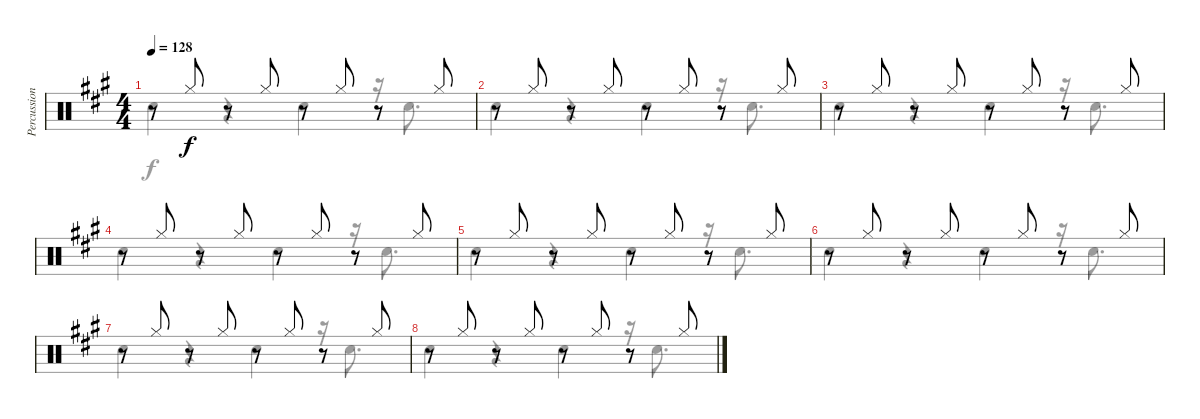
\track ("Percussion" "Percussion") {instrument percussion}
\staff {score}
\articulation defaults
\voice
\ts (4 4)
\tempo 128
\clef neutral
\ks a
r.8{dy f} "Hi-Hat (closed)".8 r.8 "Hi-Hat (closed)".8 r.8 "Hi-Hat (closed)".8 r.8 "Hi-Hat (closed)".8 |
r.8 "Hi-Hat (closed)".8 r.8 "Hi-Hat (closed)".8 r.8 "Hi-Hat (closed)".8 r.8 "Hi-Hat (closed)".8 |
r.8 "Hi-Hat (closed)".8 r.8 "Hi-Hat (closed)".8 r.8 "Hi-Hat (closed)".8 r.8 "Hi-Hat (closed)".8 |
r.8 "Hi-Hat (closed)".8 r.8 "Hi-Hat (closed)".8 r.8 "Hi-Hat (closed)".8 r.8 "Hi-Hat (closed)".8 |
r.8 "Hi-Hat (closed)".8 r.8 "Hi-Hat (closed)".8 r.8 "Hi-Hat (closed)".8 r.8 "Hi-Hat (closed)".8 |
r.8 "Hi-Hat (closed)".8 r.8 "Hi-Hat (closed)".8 r.8 "Hi-Hat (closed)".8 r.8 "Hi-Hat (closed)".8 |
r.8 "Hi-Hat (closed)".8 r.8 "Hi-Hat (closed)".8 r.8 "Hi-Hat (closed)".8 r.8 "Hi-Hat (closed)".8 |
r.8 "Hi-Hat (closed)".8 r.8 "Hi-Hat (closed)".8 r.8 "Hi-Hat (closed)".8 r.8 "Hi-Hat (closed)".8
\voice
\clef neutral
\ottava regular
\simile none
\ks a "Snare (hit) 2".4{dy f}
r.4 "Snare (hit) 2".4 r.16 "Snare (hit) 2".8{d} |
"Snare (hit) 2".4 r.4 "Snare (hit) 2".4 r.16 "Snare (hit) 2".8{d} |
"Snare (hit) 2".4 r.4 "Snare (hit) 2".4 r.16 "Snare (hit) 2".8{d} |
"Snare (hit) 2".4 r.4 "Snare (hit) 2".4 r.16 "Snare (hit) 2".8{d} |
"Snare (hit) 2".4 r.4 "Snare (hit) 2".4 r.16 "Snare (hit) 2".8{d} |
"Snare (hit) 2".4 r.4 "Snare (hit) 2".4 r.16 "Snare (hit) 2".8{d} |
"Snare (hit) 2".4 r.4 "Snare (hit) 2".4 r.16 "Snare (hit) 2".8{d} |
"Snare (hit) 2".4 r.4 "Snare (hit) 2".4 r.16 "Snare (hit) 2".8{d}
